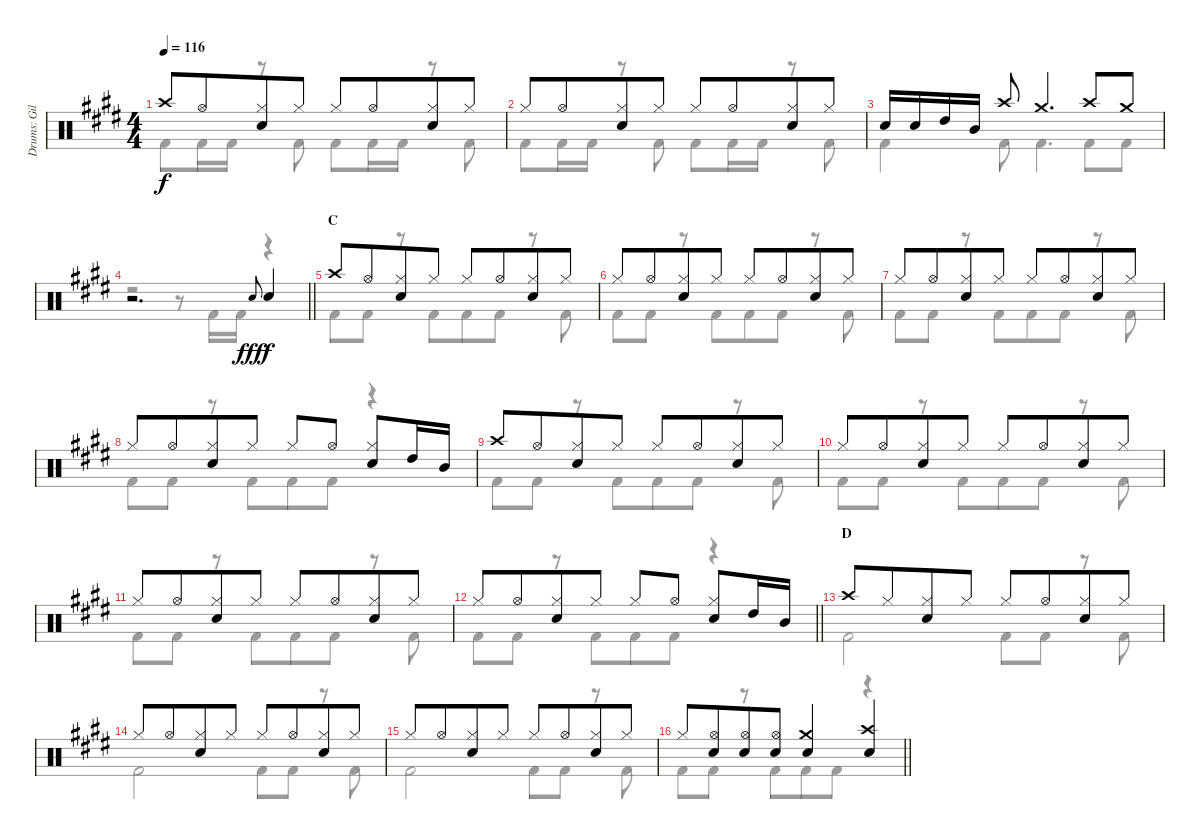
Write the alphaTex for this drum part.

\track ("Drums: Gil" "Drums: Gil") {instrument percussion}
\staff {score}
\articulation defaults
\voice
\ts (4 4)
\tempo 116
\clef neutral
\ks e "Crash high (hit)".8{dy f} "Hi-Hat (open)".8{beam merge}
("Hi-Hat (closed)" "Snare (hit) 2").8 "Hi-Hat (closed)".8 "Hi-Hat (closed)".8 "Hi-Hat (open)".8{beam merge} ("Hi-Hat (closed)" "Snare (hit) 2").8 "Hi-Hat (closed)".8 |
"Hi-Hat (closed)".8 "Hi-Hat (open)".8{beam merge} ("Hi-Hat (closed)" "Snare (hit) 2").8 "Hi-Hat (closed)".8 "Hi-Hat (closed)".8 "Hi-Hat (open)".8{beam merge} ("Hi-Hat (closed)" "Snare (hit) 2").8 "Hi-Hat (closed)".8 |
"Snare (hit) 2".16 "Snare (hit) 2".16{beam merge} "High Tom (hit)".16 "Mid Tom (hit)".16 "Crash high (hit)".8 "Crash medium (hit)".4{d beam merge} "Crash high (hit)".8 "Crash medium (hit)".8 |
\barLineRight lightlight
r.2{d} "Electric Snare (hit)".8{gr onbeat dy fff} "Snare (hit) 2".4{dy f} |
\section ("" "C")
"Crash high (hit)".8 "Hi-Hat (open)".8{beam merge} ("Hi-Hat (closed)" "Snare (hit) 2").8 "Hi-Hat (closed)".8 "Hi-Hat (closed)".8 "Hi-Hat (open)".8{beam merge} ("Hi-Hat (closed)" "Snare (hit) 2").8 "Hi-Hat (closed)".8 |
"Hi-Hat (closed)".8 "Hi-Hat (open)".8{beam merge} ("Hi-Hat (closed)" "Snare (hit) 2").8 "Hi-Hat (closed)".8 "Hi-Hat (closed)".8 "Hi-Hat (open)".8{beam merge} ("Hi-Hat (closed)" "Snare (hit) 2").8 "Hi-Hat (closed)".8 |
"Hi-Hat (closed)".8 "Hi-Hat (open)".8{beam merge} ("Hi-Hat (closed)" "Snare (hit) 2").8 "Hi-Hat (closed)".8 "Hi-Hat (closed)".8 "Hi-Hat (open)".8{beam merge} ("Hi-Hat (closed)" "Snare (hit) 2").8 "Hi-Hat (closed)".8 |
"Hi-Hat (closed)".8 "Hi-Hat (open)".8{beam merge} ("Hi-Hat (closed)" "Snare (hit) 2").8 "Hi-Hat (closed)".8 "Hi-Hat (closed)".8 "Hi-Hat (open)".8 ("Hi-Hat (closed)" "Snare (hit) 2").8{beam merge} "High Tom (hit)".16 "Mid Tom (hit)".16 |
"Crash high (hit)".8 "Hi-Hat (open)".8{beam merge} ("Hi-Hat (closed)" "Snare (hit) 2").8 "Hi-Hat (closed)".8 "Hi-Hat (closed)".8 "Hi-Hat (open)".8{beam merge} ("Hi-Hat (closed)" "Snare (hit) 2").8 "Hi-Hat (closed)".8 |
"Hi-Hat (closed)".8 "Hi-Hat (open)".8{beam merge} ("Hi-Hat (closed)" "Snare (hit) 2").8 "Hi-Hat (closed)".8 "Hi-Hat (closed)".8 "Hi-Hat (open)".8{beam merge} ("Hi-Hat (closed)" "Snare (hit) 2").8 "Hi-Hat (closed)".8 |
"Hi-Hat (closed)".8 "Hi-Hat (open)".8{beam merge} ("Hi-Hat (closed)" "Snare (hit) 2").8 "Hi-Hat (closed)".8 "Hi-Hat (closed)".8 "Hi-Hat (open)".8{beam merge} ("Hi-Hat (closed)" "Snare (hit) 2").8 "Hi-Hat (closed)".8 |
\barLineRight lightlight "Hi-Hat (closed)".8 "Hi-Hat (open)".8{beam merge}
("Hi-Hat (closed)" "Snare (hit) 2").8 "Hi-Hat (closed)".8 "Hi-Hat (closed)".8 "Hi-Hat (open)".8 ("Hi-Hat (closed)" "Snare (hit) 2").8{beam merge} "High Tom (hit)".16 "Mid Tom (hit)".16 |
\section ("" "D")
"Crash high (hit)".8 "Hi-Hat (closed)".8{beam merge} ("Hi-Hat (closed)" "Snare (hit) 2").8 "Hi-Hat (closed)".8 "Hi-Hat (closed)".8 "Hi-Hat (open)".8{beam merge} ("Hi-Hat (closed)" "Snare (hit) 2").8 "Hi-Hat (closed)".8 |
"Hi-Hat (closed)".8 "Hi-Hat (open)".8{beam merge} ("Hi-Hat (closed)" "Snare (hit) 2").8 "Hi-Hat (closed)".8 "Hi-Hat (closed)".8 "Hi-Hat (open)".8{beam merge} ("Hi-Hat (closed)" "Snare (hit) 2").8 "Hi-Hat (closed)".8 |
"Hi-Hat (closed)".8 "Hi-Hat (open)".8{beam merge} ("Hi-Hat (closed)" "Snare (hit) 2").8 "Hi-Hat (closed)".8 "Hi-Hat (closed)".8 "Hi-Hat (open)".8{beam merge} ("Hi-Hat (closed)" "Snare (hit) 2").8 "Hi-Hat (closed)".8 |
\barLineRight lightlight "Hi-Hat (closed)".8
("Hi-Hat (open)" "Snare (hit) 2").8{beam merge} ("Hi-Hat (open)" "Snare (hit) 2").8 ("Hi-Hat (open)" "Snare (hit) 2").8 ("Crash medium (hit)" "Snare (hit) 2").4 ("Crash high (hit)" "Snare (hit) 2").4
\voice
\clef neutral
\ottava regular
\simile none
\ks e "Kick (hit) 2".8{dy f} "Kick (hit) 2".16 "Kick (hit) 2".16
r.8 "Kick (hit) 2".8 "Kick (hit) 2".8 "Kick (hit) 2".16 "Kick (hit) 2".16 r.8 "Kick (hit) 2".8 |
"Kick (hit) 2".8 "Kick (hit) 2".16 "Kick (hit) 2".16 r.8 "Kick (hit) 2".8 "Kick (hit) 2".8 "Kick (hit) 2".16 "Kick (hit) 2".16 r.8 "Kick (hit) 2".8 |
"Kick (hit) 2".4 "Kick (hit) 2".8 "Kick (hit) 2".4{d} "Kick (hit) 2".8 "Kick (hit) 2".8 |
\barLineRight lightlight
r.2 r.8 "Kick (hit) 2".16 "Kick (hit) 2".16 r.4 |
"Kick (hit) 2".8 "Kick (hit) 2".8 r.8 "Kick (hit) 2".8{beam merge} "Kick (hit) 2".8 "Kick (hit) 2".8 r.8 "Kick (hit) 2".8 |
"Kick (hit) 2".8 "Kick (hit) 2".8 r.8 "Kick (hit) 2".8{beam merge} "Kick (hit) 2".8 "Kick (hit) 2".8 r.8 "Kick (hit) 2".8 |
"Kick (hit) 2".8 "Kick (hit) 2".8 r.8 "Kick (hit) 2".8{beam merge} "Kick (hit) 2".8 "Kick (hit) 2".8 r.8 "Kick (hit) 2".8 |
"Kick (hit) 2".8 "Kick (hit) 2".8 r.8 "Kick (hit) 2".8{beam merge} "Kick (hit) 2".8 "Kick (hit) 2".8 r.4 |
"Kick (hit) 2".8 "Kick (hit) 2".8 r.8 "Kick (hit) 2".8{beam merge} "Kick (hit) 2".8 "Kick (hit) 2".8 r.8 "Kick (hit) 2".8 |
"Kick (hit) 2".8 "Kick (hit) 2".8 r.8 "Kick (hit) 2".8{beam merge} "Kick (hit) 2".8 "Kick (hit) 2".8 r.8 "Kick (hit) 2".8 |
"Kick (hit) 2".8 "Kick (hit) 2".8 r.8 "Kick (hit) 2".8{beam merge} "Kick (hit) 2".8 "Kick (hit) 2".8 r.8 "Kick (hit) 2".8 |
\barLineRight lightlight "Kick (hit) 2".8 "Kick (hit) 2".8
r.8 "Kick (hit) 2".8{beam merge} "Kick (hit) 2".8 "Kick (hit) 2".8 r.4 |
"Kick (hit) 2".2{beam merge} "Kick (hit) 2".8 "Kick (hit) 2".8 r.8 "Kick (hit) 2".8 |
"Kick (hit) 2".2{beam merge} "Kick (hit) 2".8 "Kick (hit) 2".8 r.8 "Kick (hit) 2".8 |
"Kick (hit) 2".2{beam merge} "Kick (hit) 2".8 "Kick (hit) 2".8 r.8 "Kick (hit) 2".8 |
\barLineRight lightlight "Kick (hit) 2".8 "Kick (hit) 2".8
r.8 "Kick (hit) 2".8{beam merge} "Kick (hit) 2".8 "Kick (hit) 2".8 r.4
